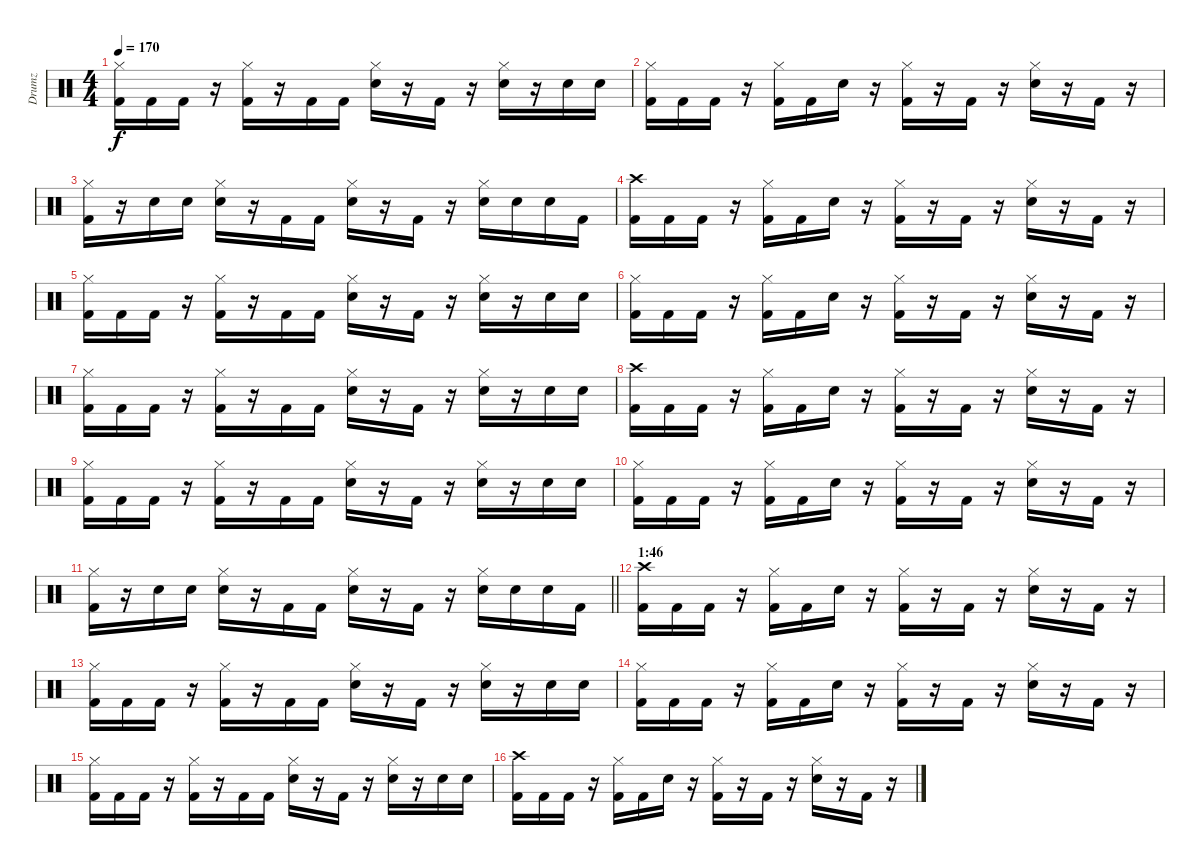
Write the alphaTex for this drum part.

\track ("Drumz" "Drumz") {instrument percussion}
\staff {score}
\articulation defaults
\ts (4 4)
\tempo 170
\clef neutral
\ks c
("Hi-Hat (closed)" "Kick (hit) 2").16{dy f} "Kick (hit) 2".16 "Kick (hit) 2".16 r.16 ("Hi-Hat (closed)" "Kick (hit) 2").16 r.16 "Kick (hit) 2".16 "Kick (hit) 2".16 ("Hi-Hat (closed)" "Electric Snare (hit)").16 r.16 "Kick (hit) 2".16 r.16 ("Hi-Hat (closed)" "Electric Snare (hit)").16 r.16 "Electric Snare (hit)".16 "Electric Snare (hit)".16 |
("Hi-Hat (closed)" "Kick (hit) 2").16 "Kick (hit) 2".16 "Kick (hit) 2".16 r.16 ("Hi-Hat (closed)" "Kick (hit) 2").16 "Kick (hit) 2".16 "Electric Snare (hit)".16 r.16 ("Hi-Hat (closed)" "Kick (hit) 2").16 r.16 "Kick (hit) 2".16 r.16 ("Hi-Hat (closed)" "Electric Snare (hit)").16 r.16 "Kick (hit) 2".16 r.16 |
("Hi-Hat (closed)" "Kick (hit) 2").16 r.16 "Electric Snare (hit)".16 "Electric Snare (hit)".16 ("Hi-Hat (closed)" "Electric Snare (hit)").16 r.16 "Kick (hit) 2".16 "Kick (hit) 2".16 ("Hi-Hat (closed)" "Electric Snare (hit)").16 r.16 "Kick (hit) 2".16 r.16 ("Hi-Hat (closed)" "Electric Snare (hit)").16 "Electric Snare (hit)".16 "Electric Snare (hit)".16 "Kick (hit) 2".16 |
("Crash high (hit)" "Kick (hit) 2").16 "Kick (hit) 2".16 "Kick (hit) 2".16 r.16 ("Hi-Hat (closed)" "Kick (hit) 2").16 "Kick (hit) 2".16 "Electric Snare (hit)".16 r.16 ("Hi-Hat (closed)" "Kick (hit) 2").16 r.16 "Kick (hit) 2".16 r.16 ("Hi-Hat (closed)" "Electric Snare (hit)").16 r.16 "Kick (hit) 2".16 r.16 |
("Hi-Hat (closed)" "Kick (hit) 2").16 "Kick (hit) 2".16 "Kick (hit) 2".16 r.16 ("Hi-Hat (closed)" "Kick (hit) 2").16 r.16 "Kick (hit) 2".16 "Kick (hit) 2".16 ("Hi-Hat (closed)" "Electric Snare (hit)").16 r.16 "Kick (hit) 2".16 r.16 ("Hi-Hat (closed)" "Electric Snare (hit)").16 r.16 "Electric Snare (hit)".16 "Electric Snare (hit)".16 |
("Hi-Hat (closed)" "Kick (hit) 2").16 "Kick (hit) 2".16 "Kick (hit) 2".16 r.16 ("Hi-Hat (closed)" "Kick (hit) 2").16 "Kick (hit) 2".16 "Electric Snare (hit)".16 r.16 ("Hi-Hat (closed)" "Kick (hit) 2").16 r.16 "Kick (hit) 2".16 r.16 ("Hi-Hat (closed)" "Electric Snare (hit)").16 r.16 "Kick (hit) 2".16 r.16 |
("Hi-Hat (closed)" "Kick (hit) 2").16 "Kick (hit) 2".16 "Kick (hit) 2".16 r.16 ("Hi-Hat (closed)" "Kick (hit) 2").16 r.16 "Kick (hit) 2".16 "Kick (hit) 2".16 ("Hi-Hat (closed)" "Electric Snare (hit)").16 r.16 "Kick (hit) 2".16 r.16 ("Hi-Hat (closed)" "Electric Snare (hit)").16 r.16 "Electric Snare (hit)".16 "Electric Snare (hit)".16 |
("Crash high (hit)" "Kick (hit) 2").16 "Kick (hit) 2".16 "Kick (hit) 2".16 r.16 ("Hi-Hat (closed)" "Kick (hit) 2").16 "Kick (hit) 2".16 "Electric Snare (hit)".16 r.16 ("Hi-Hat (closed)" "Kick (hit) 2").16 r.16 "Kick (hit) 2".16 r.16 ("Hi-Hat (closed)" "Electric Snare (hit)").16 r.16 "Kick (hit) 2".16 r.16 |
("Hi-Hat (closed)" "Kick (hit) 2").16 "Kick (hit) 2".16 "Kick (hit) 2".16 r.16 ("Hi-Hat (closed)" "Kick (hit) 2").16 r.16 "Kick (hit) 2".16 "Kick (hit) 2".16 ("Hi-Hat (closed)" "Electric Snare (hit)").16 r.16 "Kick (hit) 2".16 r.16 ("Hi-Hat (closed)" "Electric Snare (hit)").16 r.16 "Electric Snare (hit)".16 "Electric Snare (hit)".16 |
("Hi-Hat (closed)" "Kick (hit) 2").16 "Kick (hit) 2".16 "Kick (hit) 2".16 r.16 ("Hi-Hat (closed)" "Kick (hit) 2").16 "Kick (hit) 2".16 "Electric Snare (hit)".16 r.16 ("Hi-Hat (closed)" "Kick (hit) 2").16 r.16 "Kick (hit) 2".16 r.16 ("Hi-Hat (closed)" "Electric Snare (hit)").16 r.16 "Kick (hit) 2".16 r.16 |
\barLineRight lightlight
("Hi-Hat (closed)" "Kick (hit) 2").16 r.16 "Electric Snare (hit)".16 "Electric Snare (hit)".16 ("Hi-Hat (closed)" "Electric Snare (hit)").16 r.16 "Kick (hit) 2".16 "Kick (hit) 2".16 ("Hi-Hat (closed)" "Electric Snare (hit)").16 r.16 "Kick (hit) 2".16 r.16 ("Hi-Hat (closed)" "Electric Snare (hit)").16 "Electric Snare (hit)".16 "Electric Snare (hit)".16 "Kick (hit) 2".16 |
\section ("" "1:46")
("Crash high (hit)" "Kick (hit) 2").16 "Kick (hit) 2".16 "Kick (hit) 2".16 r.16 ("Hi-Hat (closed)" "Kick (hit) 2").16 "Kick (hit) 2".16 "Electric Snare (hit)".16 r.16 ("Hi-Hat (closed)" "Kick (hit) 2").16 r.16 "Kick (hit) 2".16 r.16 ("Hi-Hat (closed)" "Electric Snare (hit)").16 r.16 "Kick (hit) 2".16 r.16 |
("Hi-Hat (closed)" "Kick (hit) 2").16 "Kick (hit) 2".16 "Kick (hit) 2".16 r.16 ("Hi-Hat (closed)" "Kick (hit) 2").16 r.16 "Kick (hit) 2".16 "Kick (hit) 2".16 ("Hi-Hat (closed)" "Electric Snare (hit)").16 r.16 "Kick (hit) 2".16 r.16 ("Hi-Hat (closed)" "Electric Snare (hit)").16 r.16 "Electric Snare (hit)".16 "Electric Snare (hit)".16 |
("Hi-Hat (closed)" "Kick (hit) 2").16 "Kick (hit) 2".16 "Kick (hit) 2".16 r.16 ("Hi-Hat (closed)" "Kick (hit) 2").16 "Kick (hit) 2".16 "Electric Snare (hit)".16 r.16 ("Hi-Hat (closed)" "Kick (hit) 2").16 r.16 "Kick (hit) 2".16 r.16 ("Hi-Hat (closed)" "Electric Snare (hit)").16 r.16 "Kick (hit) 2".16 r.16 |
("Hi-Hat (closed)" "Kick (hit) 2").16 "Kick (hit) 2".16 "Kick (hit) 2".16 r.16 ("Hi-Hat (closed)" "Kick (hit) 2").16 r.16 "Kick (hit) 2".16 "Kick (hit) 2".16 ("Hi-Hat (closed)" "Electric Snare (hit)").16 r.16 "Kick (hit) 2".16 r.16 ("Hi-Hat (closed)" "Electric Snare (hit)").16 r.16 "Electric Snare (hit)".16 "Electric Snare (hit)".16 |
("Crash high (hit)" "Kick (hit) 2").16 "Kick (hit) 2".16 "Kick (hit) 2".16 r.16 ("Hi-Hat (closed)" "Kick (hit) 2").16 "Kick (hit) 2".16 "Electric Snare (hit)".16 r.16 ("Hi-Hat (closed)" "Kick (hit) 2").16 r.16 "Kick (hit) 2".16 r.16 ("Hi-Hat (closed)" "Electric Snare (hit)").16 r.16 "Kick (hit) 2".16 r.16
